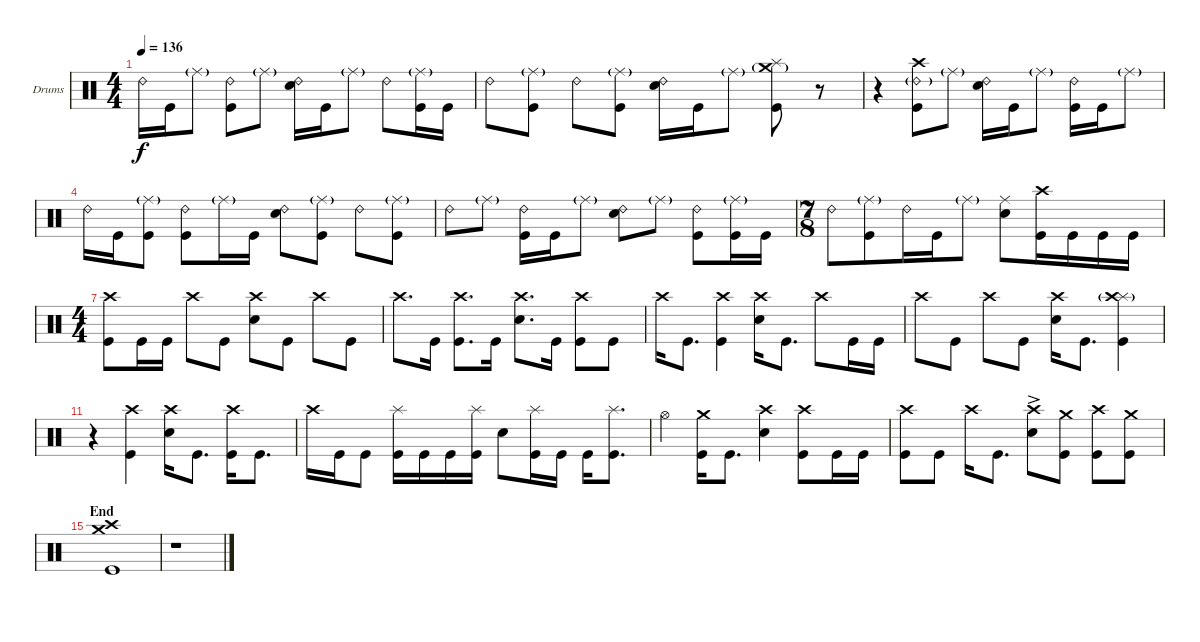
\defaultSystemsLayout 4
\bracketExtendMode groupsimilarinstruments
\firstSystemTrackNameOrientation horizontal
\otherSystemsTrackNameOrientation horizontal
\defaultBarNumberDisplay FirstOfSystem
\track ("Drumkit" "Drums") {multiBarRest instrument percussion}
\staff {score}
\articulation defaults
\ts (4 4)
\tempo 136
\clef neutral
\ks c "Ride (bell) 2".16{dy f} "Kick (hit)".16 "Ride (middle)"{g}.8
("Ride (bell) 2" "Kick (hit)").8 "Ride (middle)"{g}.8 ("Ride (bell) 2" "Snare (hit) 2").16 "Kick (hit)".16 "Ride (middle)"{g}.8 "Ride (bell) 2".8 ("Kick (hit)" "Ride (middle)"{g}).16 "Kick (hit)".16 |
"Ride (bell) 2".8 ("Kick (hit)" "Ride (middle)"{g}).8 "Ride (bell) 2".8 ("Kick (hit)" "Ride (middle)"{g}).8 ("Ride (bell) 2" "Snare (hit) 2").16 "Kick (hit)".16 "Ride (middle)"{g}.8 ("Kick (hit)" "Splash (hit)" "Crash medium (hit)"{g}).8 r.8 |
r.4 ("Crash high (hit)" "Ride (bell) 2"{g} "Kick (hit)").8 "Ride (middle)"{g}.8 ("Ride (bell) 2" "Snare (hit) 2").16 "Kick (hit)".16 "Ride (middle)"{g}.8 ("Ride (bell) 2" "Kick (hit)").16 "Kick (hit)".16 "Ride (middle)"{g}.8 |
"Ride (bell) 2".16 "Kick (hit)".16 ("Kick (hit)" "Ride (middle)"{g}).8 ("Ride (bell) 2" "Kick (hit)").8 "Ride (middle)"{g}.16 "Kick (hit)".16 ("Ride (bell) 2" "Snare (hit) 2").8 ("Kick (hit)" "Ride (middle)"{g}).8 "Ride (bell) 2".8 ("Kick (hit)" "Ride (middle)"{g}).8 |
"Ride (bell) 2".8 "Ride (middle)"{g}.8 ("Ride (bell) 2" "Kick (hit)").16 "Kick (hit)".16 "Ride (middle)"{g}.8 ("Ride (bell) 2" "Snare (hit) 2").8 "Ride (middle)"{g}.8 ("Ride (bell) 2" "Kick (hit)").8 ("Kick (hit)" "Ride (middle)"{g}).16 "Kick (hit)".16 |
\ts (7 8)
"Ride (bell) 2".8 ("Ride (middle)"{g} "Kick (hit)").8 "Ride (bell) 2".16 "Kick (hit)".16 "Ride (middle)"{g}.8 ("Ride (middle)" "Snare (hit) 2").8 ("Kick (hit)" "Crash high (hit)").16 "Kick (hit)".16 "Kick (hit)".16 "Kick (hit)".16 |
\ts (4 4)
("Kick (hit)" "Crash high (hit)").8 "Kick (hit)".16 "Kick (hit)".16 "Crash high (hit)".8 "Kick (hit)".8 ("Snare (hit) 2" "Crash high (hit)").8 "Kick (hit)".8 "Crash high (hit)".8 "Kick (hit)".8 |
"Crash high (hit)".8{d} "Kick (hit)".16 ("Kick (hit)" "Crash high (hit)").8{d} "Kick (hit)".16 ("Snare (hit) 2" "Crash high (hit)").8{d} "Kick (hit)".16 ("Kick (hit)" "Crash high (hit)").8 "Kick (hit)".8 |
"Crash high (hit)".16 "Kick (hit)".8{d} ("Kick (hit)" "Crash high (hit)").4 ("Snare (hit) 2" "Crash high (hit)").16 "Kick (hit)".8{d} "Crash high (hit)".8 "Kick (hit)".16 "Kick (hit)".16 |
"Crash high (hit)".8 "Kick (hit)".8 "Crash high (hit)".8 "Kick (hit)".8 ("Snare (hit) 2" "Crash high (hit)").16 "Kick (hit)".8{d} ("Kick (hit)" "Splash (hit)" "Crash high (hit)"{g}).4 |
r.4 ("Crash high (hit)" "Kick (hit)").4 ("Snare (hit) 2" "Crash high (hit)").16 "Kick (hit)".8{d} ("Kick (hit)" "Crash high (hit)").16 "Kick (hit)".8{d} |
"Crash high (hit)".16 "Kick (hit)".16 "Kick (hit)".8 ("Splash (hit)" "Kick (hit)").16 "Kick (hit)".16 "Kick (hit)".16 ("Splash (hit)" "Kick (hit)").16 "Snare (hit) 2".8 ("Kick (hit)" "Splash (hit)").16 "Kick (hit)".16 "Kick (hit)".16 ("Kick (hit)" "Splash (hit)").8{d} |
"Hi-Hat (open)".4 ("Kick (hit)" "Crash medium (hit)").16 "Kick (hit)".8{d} ("Snare (hit) 2" "Crash high (hit)").4 ("Kick (hit)" "Crash high (hit)").8 "Kick (hit)".16 "Kick (hit)".16 |
("Crash high (hit)" "Kick (hit)").8 "Kick (hit)".8 "Crash high (hit)".16 "Kick (hit)".8{d} ("Crash high (hit)" "Snare (hit) 2"{ac}).8 ("Kick (hit)" "Crash medium (hit)").8 ("Kick (hit)" "Crash high (hit)").8 ("Kick (hit)" "Crash medium (hit)").8 |
\section ("" "End")
("Kick (hit)" "Crash high (hit)" "Crash medium (hit)").1 |
r.1
